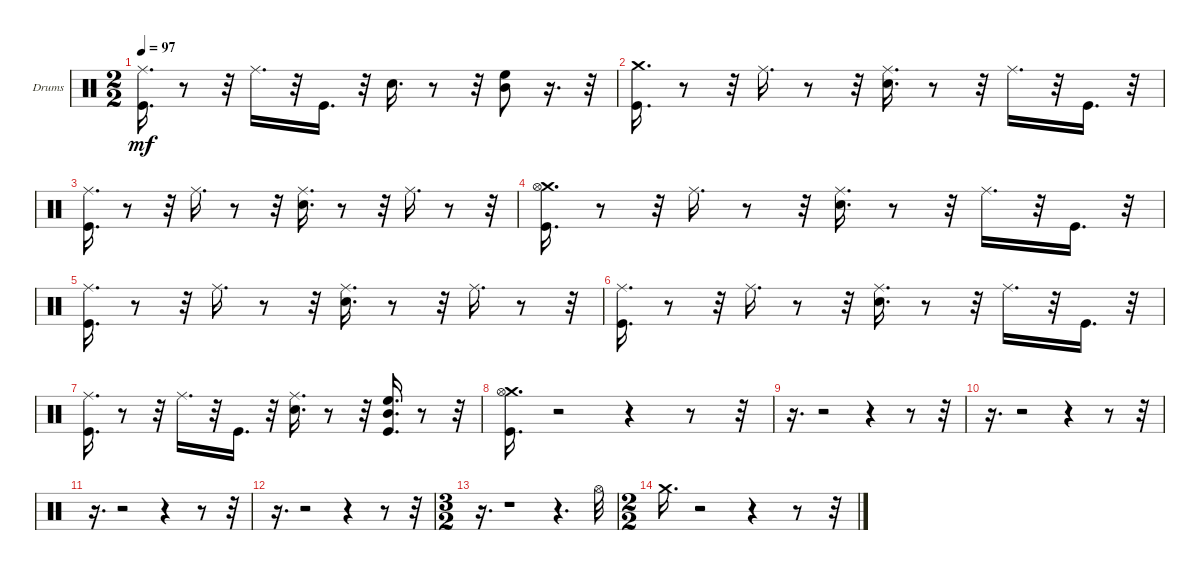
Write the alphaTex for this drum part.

\bracketExtendMode groupsimilarinstruments
\firstSystemTrackNameOrientation horizontal
\otherSystemsTrackNameOrientation horizontal
\track ("Percusion" "Drums") {instrument percussion}
\staff {score}
\articulation defaults
\ts (2 2)
\tempo 97
\clef neutral
\ks c
("Ride (middle)" "Kick (hit)").16{d dy mf} r.8 r.32 "Ride (middle)".16{d} r.32 "Kick (hit)".16{d} r.32 "Snare (hit) 2".16{d} r.8 r.32 ("High Floor Tom (hit)" "Mid Tom (hit)").8 r.16{d} r.32 |
("Crash medium (hit)" "Kick (hit)").16{d} r.8 r.32 "Ride (middle)".16{d} r.8 r.32 ("Ride (middle)" "Snare (hit) 2").16{d} r.8 r.32 "Ride (middle)".16{d} r.32 "Kick (hit)".16{d} r.32 |
("Ride (middle)" "Kick (hit)").16{d} r.8 r.32 "Ride (middle)".16{d} r.8 r.32 ("Ride (middle)" "Snare (hit) 2").16{d} r.8 r.32 "Ride (middle)".16{d} r.8 r.32 |
("Crash medium (hit)" "Hi-Hat (open)" "Kick (hit)").16{d} r.8 r.32 "Ride (middle)".16{d} r.8 r.32 ("Ride (middle)" "Snare (hit) 2").16{d} r.8 r.32 "Ride (middle)".16{d} r.32 "Kick (hit)".16{d} r.32 |
("Ride (middle)" "Kick (hit)").16{d} r.8 r.32 "Ride (middle)".16{d} r.8 r.32 ("Ride (middle)" "Snare (hit) 2").16{d} r.8 r.32 "Ride (middle)".16{d} r.8 r.32 |
("Ride (middle)" "Kick (hit)").16{d} r.8 r.32 "Ride (middle)".16{d} r.8 r.32 ("Ride (middle)" "Snare (hit) 2").16{d} r.8 r.32 "Ride (middle)".16{d} r.32 "Kick (hit)".16{d} r.32 |
("Ride (middle)" "Kick (hit)").16{d} r.8 r.32 "Ride (middle)".16{d} r.32 "Kick (hit)".16{d} r.32 ("Ride (middle)" "Snare (hit) 2").16{d} r.8 r.32 ("Mid Tom (hit)" "High Floor Tom (hit)" "Kick (hit)").16{d} r.8 r.32 |
("Crash medium (hit)" "Hi-Hat (open)" "Kick (hit)").16{d} r.2 r.4 r.8 r.32 |
r.16{d} r.2 r.4 r.8 r.32 |
r.16{d} r.2 r.4 r.8 r.32 |
r.16{d} r.2 r.4 r.8 r.32 |
r.16{d} r.2 r.4 r.8 r.32 |
\ts (3 2)
r.16{d} r.1 r.4{d} "Hi-Hat (open)".32 |
\ts (2 2)
"Crash medium (hit)".16{d} r.2 r.4 r.8 r.32
